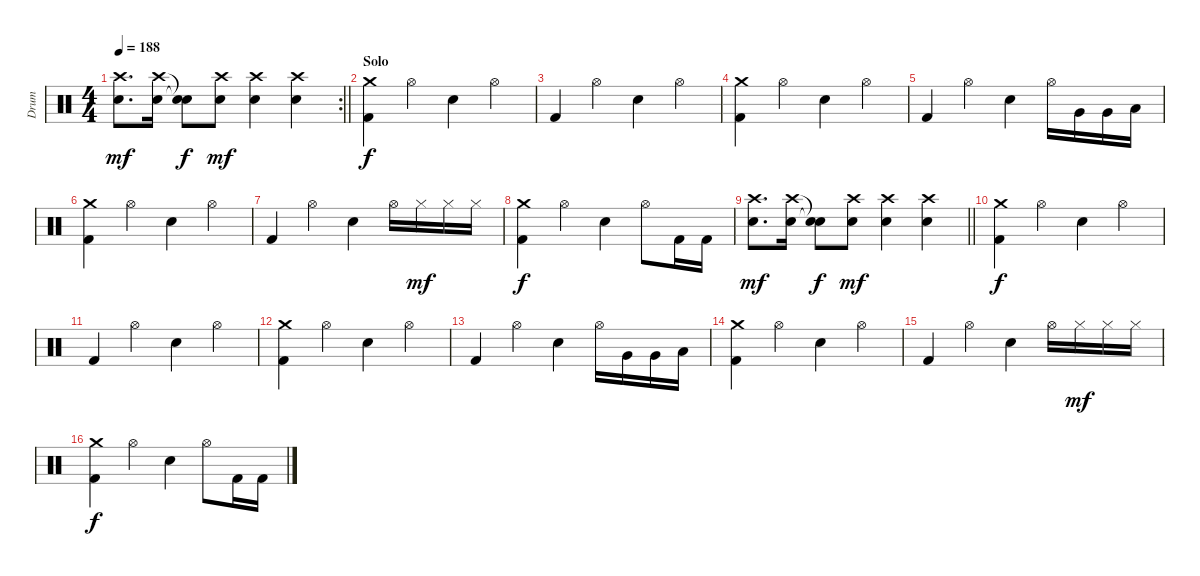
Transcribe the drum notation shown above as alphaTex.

\track ("Drum" "Drum") {instrument percussion}
\staff {score}
\articulation defaults
\rc 2
\ts (4 4)
\tempo 188
\clef neutral
\barLineRight lightlight
\ks c
("Crash high (hit)" "Snare (hit) 2").8{d dy mf} ("Crash high (hit)" "Snare (hit) 2").16 ("Snare (hit)"{t} "Snare (hit) 2"{t}).8{dy f} ("Crash high (hit)" "Snare (hit) 2").8{dy mf} ("Crash high (hit)" "Snare (hit) 2").4 ("Crash high (hit)" "Snare (hit) 2").4 |
\section ("" "Solo")
("Kick (hit) 2" "Crash medium (hit)").4{dy f} "Hi-Hat (open)".4 "Snare (hit) 2".4 "Hi-Hat (open)".4 |
"Kick (hit) 2".4 "Hi-Hat (open)".4 "Snare (hit) 2".4 "Hi-Hat (open)".4 |
("Kick (hit) 2" "Crash medium (hit)").4 "Hi-Hat (open)".4 "Snare (hit) 2".4 "Hi-Hat (open)".4 |
"Kick (hit) 2".4 "Hi-Hat (open)".4 "Snare (hit) 2".4 "Hi-Hat (open)".16 "Very Low Tom (hit)".16 "Very Low Tom (hit)".16 "Low Floor Tom (hit)".16 |
("Kick (hit) 2" "Crash medium (hit)").4 "Hi-Hat (open)".4 "Snare (hit) 2".4 "Hi-Hat (open)".4 |
"Kick (hit) 2".4 "Hi-Hat (open)".4 "Snare (hit) 2".4 "Hi-Hat (open)".16 "Hi-Hat (closed)".16{dy mf} "Hi-Hat (closed)".16 "Hi-Hat (closed)".16 |
("Kick (hit) 2" "Crash medium (hit)").4{dy f} "Hi-Hat (open)".4 "Snare (hit) 2".4 "Hi-Hat (open)".8 "Kick (hit) 2".16 "Kick (hit) 2".16 |
\barLineRight lightlight
("Crash high (hit)" "Snare (hit) 2").8{d dy mf} ("Crash high (hit)" "Snare (hit) 2").16 ("Snare (hit)"{t} "Snare (hit) 2"{t}).8{dy f} ("Crash high (hit)" "Snare (hit) 2").8{dy mf} ("Crash high (hit)" "Snare (hit) 2").4 ("Crash high (hit)" "Snare (hit) 2").4 |
("Kick (hit) 2" "Crash medium (hit)").4{dy f} "Hi-Hat (open)".4 "Snare (hit) 2".4 "Hi-Hat (open)".4 |
"Kick (hit) 2".4 "Hi-Hat (open)".4 "Snare (hit) 2".4 "Hi-Hat (open)".4 |
("Kick (hit) 2" "Crash medium (hit)").4 "Hi-Hat (open)".4 "Snare (hit) 2".4 "Hi-Hat (open)".4 |
"Kick (hit) 2".4 "Hi-Hat (open)".4 "Snare (hit) 2".4 "Hi-Hat (open)".16 "Very Low Tom (hit)".16 "Very Low Tom (hit)".16 "Low Floor Tom (hit)".16 |
("Kick (hit) 2" "Crash medium (hit)").4 "Hi-Hat (open)".4 "Snare (hit) 2".4 "Hi-Hat (open)".4 |
"Kick (hit) 2".4 "Hi-Hat (open)".4 "Snare (hit) 2".4 "Hi-Hat (open)".16 "Hi-Hat (closed)".16{dy mf} "Hi-Hat (closed)".16 "Hi-Hat (closed)".16 |
("Kick (hit) 2" "Crash medium (hit)").4{dy f} "Hi-Hat (open)".4 "Snare (hit) 2".4 "Hi-Hat (open)".8 "Kick (hit) 2".16 "Kick (hit) 2".16
